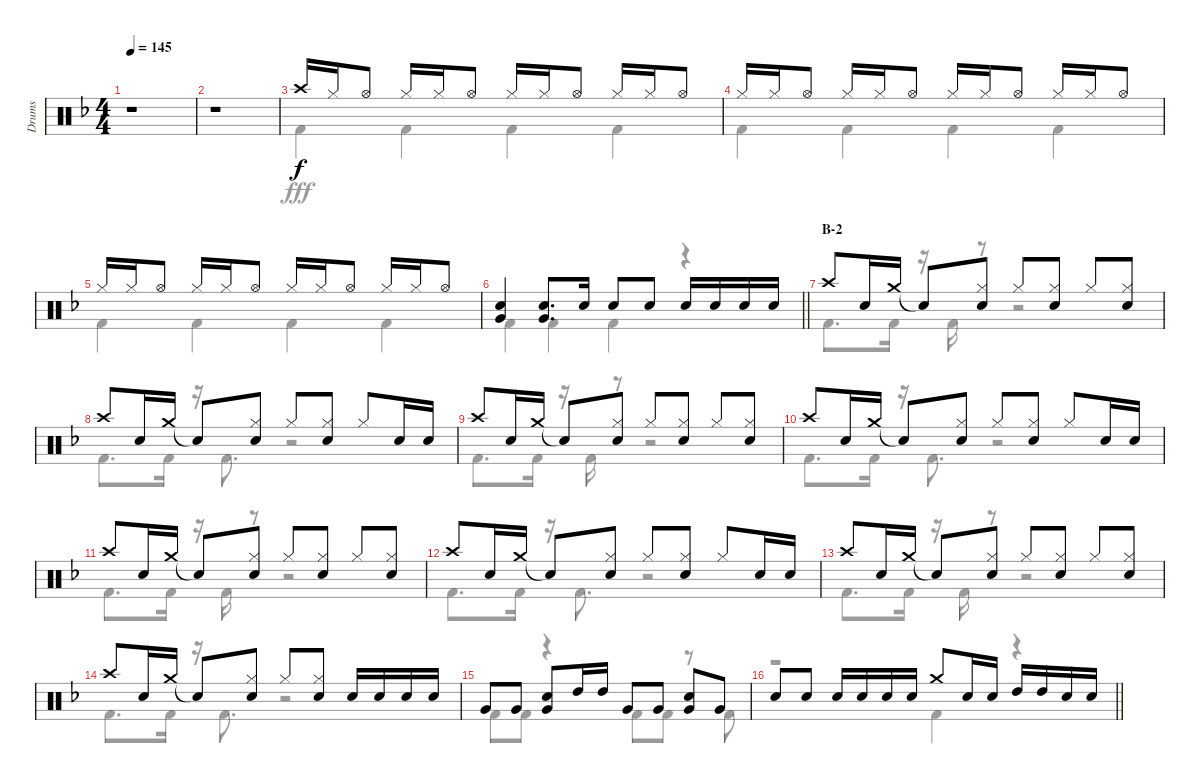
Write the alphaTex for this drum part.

\track ("Drums" "Drums") {instrument percussion}
\staff {score}
\articulation defaults
\voice
\ts (4 4)
\tempo 145
\clef neutral
\ks f
r.1{dy f} |
r.1 |
"Crash high (hit)".16 "Hi-Hat (closed)".16 "Hi-Hat (open)".8 "Hi-Hat (closed)".16 "Hi-Hat (closed)".16 "Hi-Hat (open)".8 "Hi-Hat (closed)".16 "Hi-Hat (closed)".16 "Hi-Hat (open)".8 "Hi-Hat (closed)".16 "Hi-Hat (closed)".16 "Hi-Hat (open)".8 |
"Hi-Hat (closed)".16 "Hi-Hat (closed)".16 "Hi-Hat (open)".8 "Hi-Hat (closed)".16 "Hi-Hat (closed)".16 "Hi-Hat (open)".8 "Hi-Hat (closed)".16 "Hi-Hat (closed)".16 "Hi-Hat (open)".8 "Hi-Hat (closed)".16 "Hi-Hat (closed)".16 "Hi-Hat (open)".8 |
"Hi-Hat (closed)".16 "Hi-Hat (closed)".16 "Hi-Hat (open)".8 "Hi-Hat (closed)".16 "Hi-Hat (closed)".16 "Hi-Hat (open)".8 "Hi-Hat (closed)".16 "Hi-Hat (closed)".16 "Hi-Hat (open)".8 "Hi-Hat (closed)".16 "Hi-Hat (closed)".16 "Hi-Hat (open)".8 |
\barLineRight lightlight
("Snare (hit) 2" "Very Low Tom (hit)").4 ("Snare (hit) 2" "Very Low Tom (hit)").8{d} "Snare (hit) 2".16 "Snare (hit) 2".8 "Snare (hit) 2".8 "Snare (hit) 2".16 "Snare (hit) 2".16 "Snare (hit) 2".16 "Snare (hit) 2".16 |
\section ("" "B-2")
"Crash high (hit)".8 "Snare (hit) 2".16 "Crash medium (hit)".16 "Snare (hit)"{t}.8 ("Hi-Hat (closed)" "Snare (hit) 2").8 "Hi-Hat (closed)".8 ("Hi-Hat (closed)" "Snare (hit) 2").8 "Hi-Hat (closed)".8 ("Hi-Hat (closed)" "Snare (hit) 2").8 |
"Crash high (hit)".8 "Snare (hit) 2".16 "Crash medium (hit)".16 "Snare (hit)"{t}.8 ("Hi-Hat (closed)" "Snare (hit) 2").8 "Hi-Hat (closed)".8 ("Hi-Hat (closed)" "Snare (hit) 2").8 "Hi-Hat (closed)".8 "Snare (hit) 2".16 "Snare (hit) 2".16 |
"Crash high (hit)".8 "Snare (hit) 2".16 "Crash medium (hit)".16 "Snare (hit)"{t}.8 ("Hi-Hat (closed)" "Snare (hit) 2").8 "Hi-Hat (closed)".8 ("Hi-Hat (closed)" "Snare (hit) 2").8 "Hi-Hat (closed)".8 ("Hi-Hat (closed)" "Snare (hit) 2").8 |
"Crash high (hit)".8 "Snare (hit) 2".16 "Crash medium (hit)".16 "Snare (hit)"{t}.8 ("Hi-Hat (closed)" "Snare (hit) 2").8 "Hi-Hat (closed)".8 ("Hi-Hat (closed)" "Snare (hit) 2").8 "Hi-Hat (closed)".8 "Snare (hit) 2".16 "Snare (hit) 2".16 |
"Crash high (hit)".8 "Snare (hit) 2".16 "Crash medium (hit)".16 "Snare (hit)"{t}.8 ("Hi-Hat (closed)" "Snare (hit) 2").8 "Hi-Hat (closed)".8 ("Hi-Hat (closed)" "Snare (hit) 2").8 "Hi-Hat (closed)".8 ("Hi-Hat (closed)" "Snare (hit) 2").8 |
"Crash high (hit)".8 "Snare (hit) 2".16 "Crash medium (hit)".16 "Snare (hit)"{t}.8 ("Hi-Hat (closed)" "Snare (hit) 2").8 "Hi-Hat (closed)".8 ("Hi-Hat (closed)" "Snare (hit) 2").8 "Hi-Hat (closed)".8 "Snare (hit) 2".16 "Snare (hit) 2".16 |
"Crash high (hit)".8 "Snare (hit) 2".16 "Crash medium (hit)".16 "Snare (hit)"{t}.8 ("Hi-Hat (closed)" "Snare (hit) 2").8 "Hi-Hat (closed)".8 ("Hi-Hat (closed)" "Snare (hit) 2").8 "Hi-Hat (closed)".8 ("Hi-Hat (closed)" "Snare (hit) 2").8 |
"Crash high (hit)".8 "Snare (hit) 2".16 "Crash medium (hit)".16 "Snare (hit)"{t}.8 ("Hi-Hat (closed)" "Snare (hit) 2").8 "Hi-Hat (closed)".8 ("Hi-Hat (closed)" "Snare (hit) 2").8 "Snare (hit) 2".16 "Snare (hit) 2".16 "Snare (hit) 2".16 "Snare (hit) 2".16 |
"Very Low Tom (hit)".8 "Very Low Tom (hit)".8 ("Snare (hit) 2" "Very Low Tom (hit)").8 "High Tom (hit)".16 "High Tom (hit)".16 "Very Low Tom (hit)".8 "Very Low Tom (hit)".8 ("Snare (hit) 2" "Very Low Tom (hit)").8 "Very Low Tom (hit)".8 |
\barLineRight lightlight "Snare (hit) 2".8 "Snare (hit) 2".8 "Snare (hit) 2".16 "Snare (hit) 2".16 "Snare (hit) 2".16 "Snare (hit) 2".16 "Crash medium (hit)".8 "Snare (hit) 2".16 "Snare (hit) 2".16 "High Tom (hit)".16 "High Tom (hit)".16 "Snare (hit) 2".16 "Snare (hit) 2".16
\voice
\clef neutral
\ottava regular
\simile none
\ks f
r.1{dy fff} |
r.1 |
"Kick (hit) 2".4 "Kick (hit) 2".4 "Kick (hit) 2".4 "Kick (hit) 2".4 |
"Kick (hit) 2".4 "Kick (hit) 2".4 "Kick (hit) 2".4 "Kick (hit) 2".4 |
"Kick (hit) 2".4 "Kick (hit) 2".4 "Kick (hit) 2".4 "Kick (hit) 2".4 |
\barLineRight lightlight "Kick (hit) 2".4 "Kick (hit) 2".4 "Kick (hit) 2".4
r.4 |
"Kick (hit) 2".8{d} "Kick (hit) 2".16 r.16 "Kick (hit) 2".16 r.8 r.2 |
"Kick (hit) 2".8{d} "Kick (hit) 2".16 r.16 "Kick (hit) 2".8{d} r.2 |
"Kick (hit) 2".8{d} "Kick (hit) 2".16 r.16 "Kick (hit) 2".16 r.8 r.2 |
"Kick (hit) 2".8{d} "Kick (hit) 2".16 r.16 "Kick (hit) 2".8{d} r.2 |
"Kick (hit) 2".8{d} "Kick (hit) 2".16 r.16 "Kick (hit) 2".16 r.8 r.2 |
"Kick (hit) 2".8{d} "Kick (hit) 2".16 r.16 "Kick (hit) 2".8{d} r.2 |
"Kick (hit) 2".8{d} "Kick (hit) 2".16 r.16 "Kick (hit) 2".16 r.8 r.2 |
"Kick (hit) 2".8{d} "Kick (hit) 2".16 r.16 "Kick (hit) 2".8{d} r.2 |
"Kick (hit) 2".8 "Kick (hit) 2".8 r.4 "Kick (hit) 2".8 "Kick (hit) 2".8 r.8 "Kick (hit) 2".8 |
\barLineRight lightlight
r.2 "Kick (hit) 2".4 r.4
